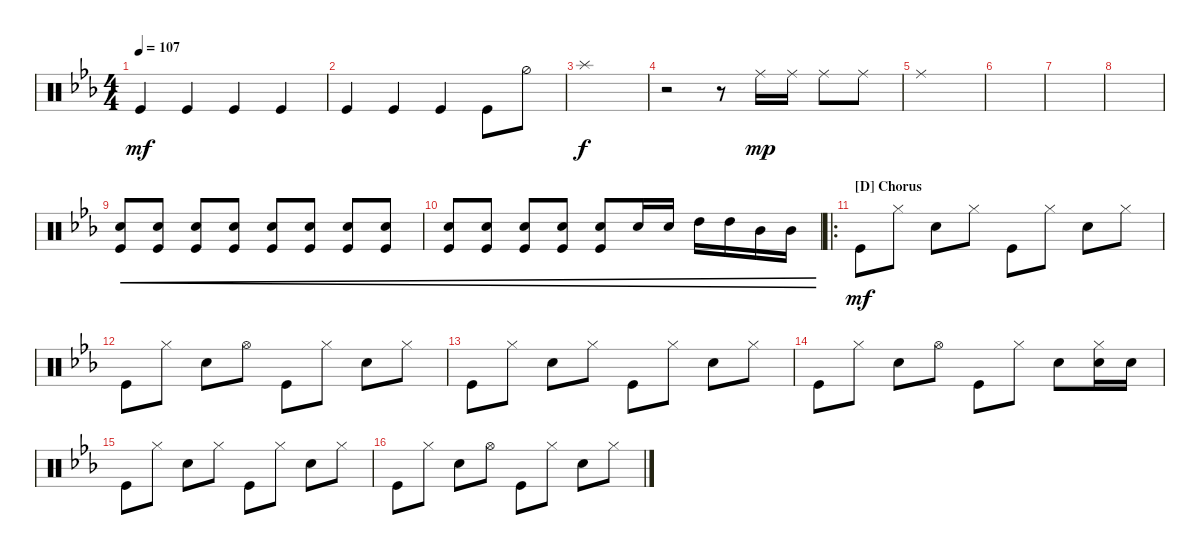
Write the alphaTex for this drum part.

\defaultSystemsLayout 4
\bracketExtendMode groupsimilarinstruments
\singleTrackTrackNamePolicy hidden
\firstSystemTrackNameOrientation horizontal
\otherSystemsTrackNameOrientation horizontal
\chordDiagramsInScore
\track ("Drumkit" "Drums") {instrument percussion}
\staff {score}
\articulation defaults
\ts (4 4)
\tempo 107
\clef neutral
\ks cminor "Kick (hit)".4{dy mf} "Kick (hit)".4 "Kick (hit)".4 "Kick (hit)".4
|
"Kick (hit)".4 "Kick (hit)".4 "Kick (hit)".4 "Kick (hit)".8 "Hi-Hat (half)".8 |
\scale
0.256011 "Splash (hit)".1{dy f} |
\scale
0.265416 r.2 r.8 "Ride (middle)".16{dy mp} "Ride (middle)".16 "Ride (middle)".8 "Ride (middle)".8 |
\scale
0.208156 "Ride (middle)".1 |
\scale
0.267991 |
\scale
0.26023 |
\scale
0.262714 |
\scale
0.206575 ("Kick (hit)" "Snare (hit) 2").8{cre} ("Kick (hit)" "Snare (hit) 2").8{cre} ("Kick (hit)" "Snare (hit) 2").8{cre} ("Kick (hit)" "Snare (hit) 2").8{cre} ("Kick (hit)" "Snare (hit) 2").8{cre} ("Kick (hit)" "Snare (hit) 2").8{cre} ("Kick (hit)" "Snare (hit) 2").8{cre} ("Kick (hit)" "Snare (hit) 2").8{cre} |
\scale
0.271084 ("Kick (hit)" "Snare (hit) 2").8{cre} ("Kick (hit)" "Snare (hit) 2").8{cre} ("Kick (hit)" "Snare (hit) 2").8{cre} ("Kick (hit)" "Snare (hit) 2").8{cre} ("Kick (hit)" "Snare (hit) 2").8{cre} "Snare (hit) 2".16{cre} "Snare (hit) 2".16{cre} "High Tom (hit)".16{cre} "High Tom (hit)".16{cre} "Mid Tom (hit)".16{cre} "Mid Tom (hit)".16{cre} |
\ro
\section ("D" "Chorus")
\scale
0.261348 "Kick (hit)".8{dy mf} "Hi-Hat (closed)".8 "Snare (hit) 2".8 "Hi-Hat (closed)".8 "Kick (hit)".8 "Hi-Hat (closed)".8 "Snare (hit) 2".8 "Hi-Hat (closed)".8 |
\scale
0.258851 "Kick (hit)".8 "Hi-Hat (closed)".8 "Snare (hit) 2".8 "Hi-Hat (open)".8 "Kick (hit)".8 "Hi-Hat (closed)".8 "Snare (hit) 2".8 "Hi-Hat (closed)".8 |
\scale
0.214768 "Kick (hit)".8 "Hi-Hat (closed)".8 "Snare (hit) 2".8 "Hi-Hat (closed)".8 "Kick (hit)".8 "Hi-Hat (closed)".8 "Snare (hit) 2".8 "Hi-Hat (closed)".8 |
\scale
0.265674 "Kick (hit)".8 "Hi-Hat (closed)".8 "Snare (hit) 2".8 "Hi-Hat (open)".8 "Kick (hit)".8 "Hi-Hat (closed)".8 "Snare (hit) 2".8 ("Hi-Hat (closed)" "Snare (hit) 2").16 "Snare (hit) 2".16 |
"Kick (hit)".8 "Hi-Hat (closed)".8 "Snare (hit) 2".8 "Hi-Hat (closed)".8 "Kick (hit)".8 "Hi-Hat (closed)".8 "Snare (hit) 2".8 "Hi-Hat (closed)".8 |
"Kick (hit)".8 "Hi-Hat (closed)".8 "Snare (hit) 2".8 "Hi-Hat (open)".8 "Kick (hit)".8 "Hi-Hat (closed)".8 "Snare (hit) 2".8 "Hi-Hat (closed)".8
